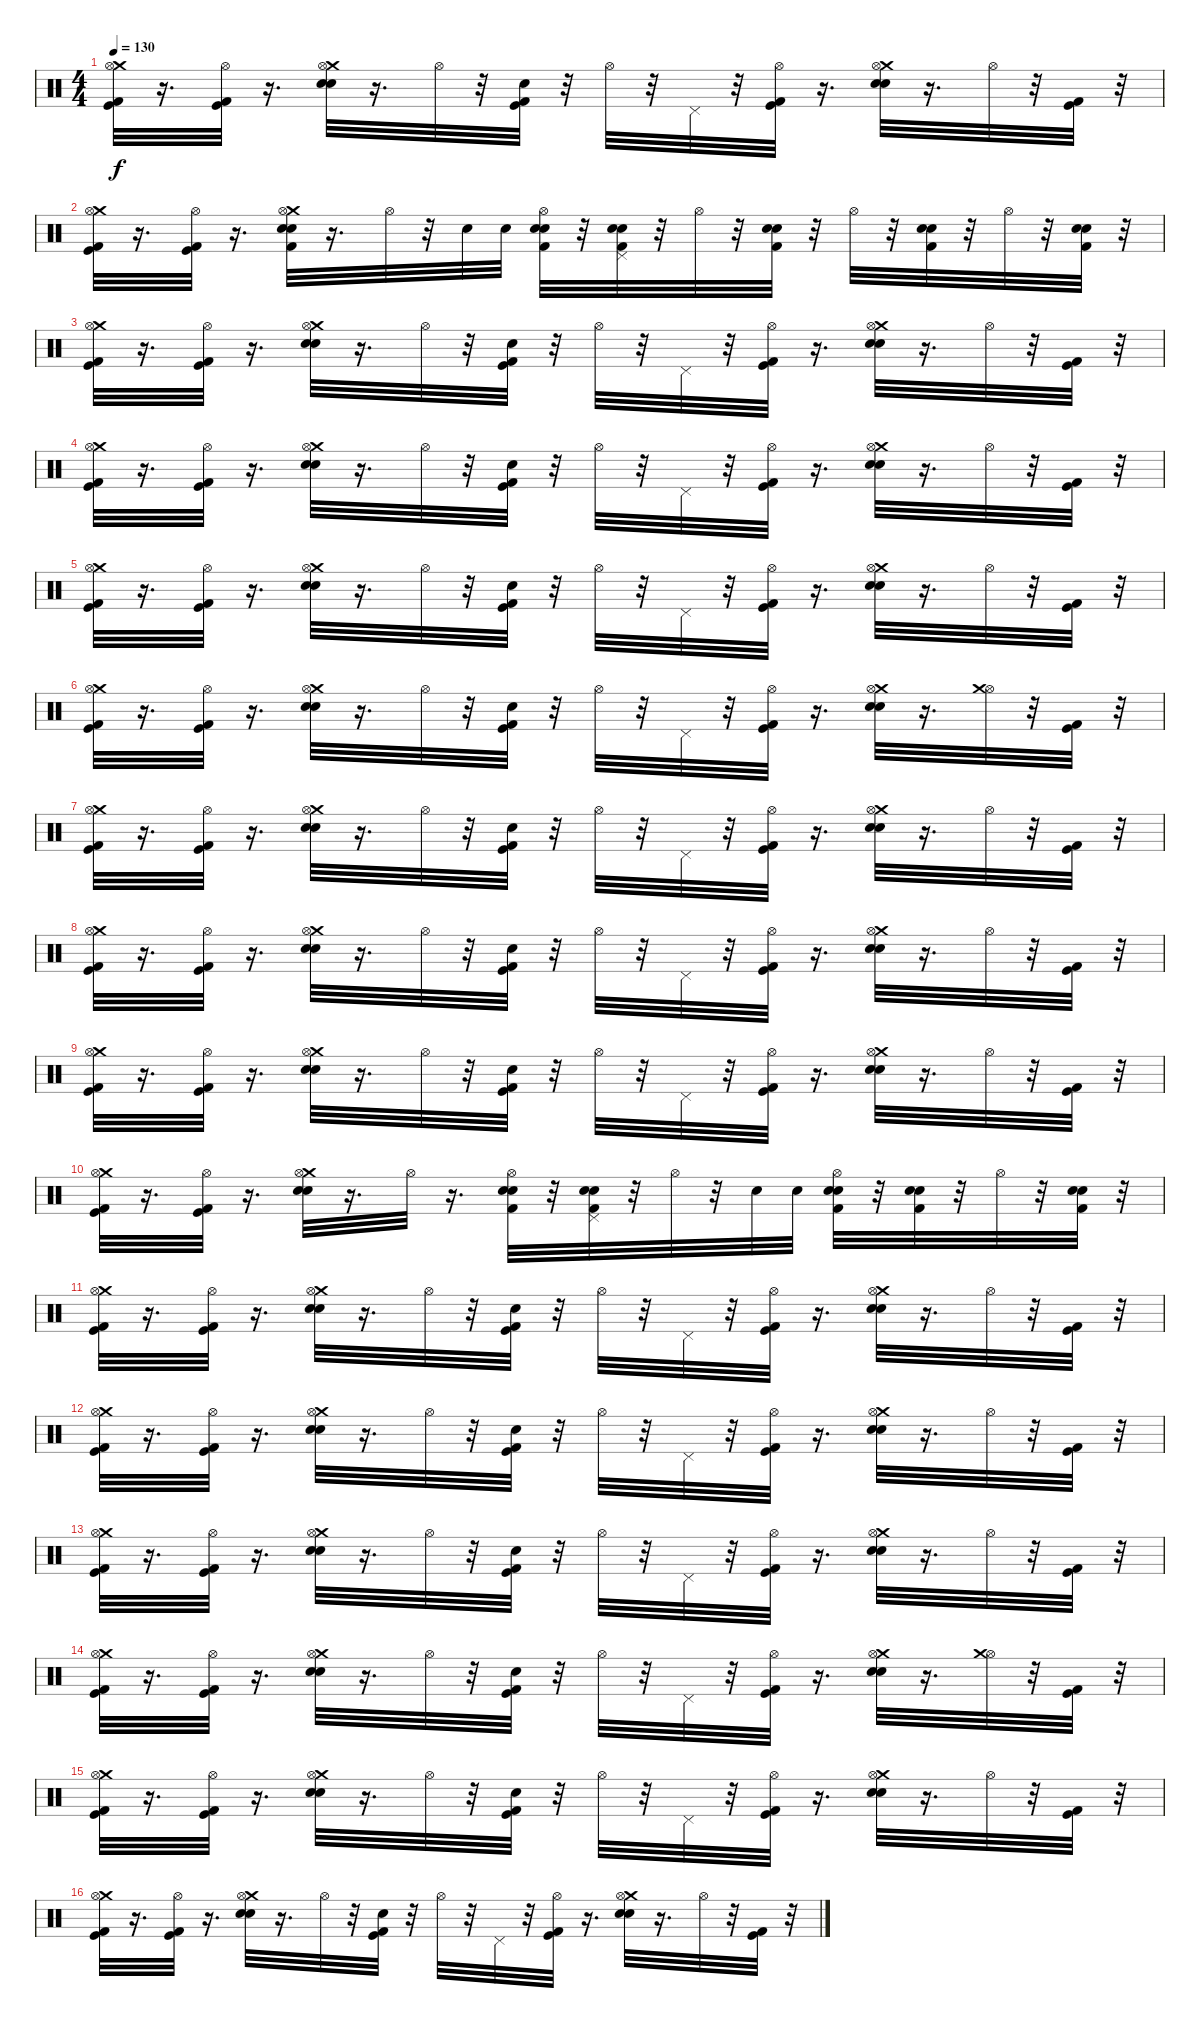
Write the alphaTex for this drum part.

\track "" {instrument percussion}
\staff {score}
\articulation defaults
\ts (4 4)
\tempo 130
\clef neutral
\ks c
("Kick (hit) 2" "Kick (hit)" "Crash medium (hit)" "Hi-Hat (open)").32{dy f} r.16{d} ("Kick (hit) 2" "Kick (hit)" "Hi-Hat (open)").32 r.16{d} ("Snare (hit) 2" "Electric Snare (hit)" "Crash medium (hit)" "Hi-Hat (open)").32 r.16{d} "Hi-Hat (open)".32 r.32 ("Kick (hit) 2" "Kick (hit)" "Electric Snare (hit)").32 r.32 "Hi-Hat (open)".32 r.32 "Pedal Hi-Hat (hit)".32 r.32 ("Kick (hit) 2" "Kick (hit)" "Hi-Hat (open)").32 r.16{d} ("Snare (hit) 2" "Electric Snare (hit)" "Crash medium (hit)" "Hi-Hat (open)").32 r.16{d} "Hi-Hat (open)".32 r.32 ("Kick (hit) 2" "Kick (hit)").32 r.32 |
("Kick (hit) 2" "Kick (hit)" "Crash medium (hit)" "Hi-Hat (open)").32 r.16{d} ("Kick (hit) 2" "Kick (hit)" "Hi-Hat (open)").32 r.16{d} ("Crash medium (hit)" "Hi-Hat (open)" "Electric Snare (hit)" "Snare (hit) 2" "Kick (hit) 2").32 r.16{d} "Hi-Hat (open)".32 r.32 "Electric Snare (hit)".32 "Electric Snare (hit)".32 ("Hi-Hat (open)" "Snare (hit) 2" "Electric Snare (hit)" "Kick (hit) 2").32 r.32 ("Pedal Hi-Hat (hit)" "Electric Snare (hit)" "Snare (hit) 2" "Kick (hit) 2").32 r.32 "Hi-Hat (open)".32 r.32 ("Electric Snare (hit)" "Snare (hit) 2" "Kick (hit) 2").32 r.32 "Hi-Hat (open)".32 r.32 ("Electric Snare (hit)" "Snare (hit) 2" "Kick (hit) 2").32 r.32 "Hi-Hat (open)".32 r.32 ("Electric Snare (hit)" "Snare (hit) 2" "Kick (hit) 2").32 r.32 |
("Kick (hit) 2" "Kick (hit)" "Crash medium (hit)" "Hi-Hat (open)").32 r.16{d} ("Kick (hit) 2" "Kick (hit)" "Hi-Hat (open)").32 r.16{d} ("Snare (hit) 2" "Electric Snare (hit)" "Crash medium (hit)" "Hi-Hat (open)").32 r.16{d} "Hi-Hat (open)".32 r.32 ("Kick (hit) 2" "Kick (hit)" "Electric Snare (hit)").32 r.32 "Hi-Hat (open)".32 r.32 "Pedal Hi-Hat (hit)".32 r.32 ("Kick (hit) 2" "Kick (hit)" "Hi-Hat (open)").32 r.16{d} ("Snare (hit) 2" "Electric Snare (hit)" "Crash medium (hit)" "Hi-Hat (open)").32 r.16{d} "Hi-Hat (open)".32 r.32 ("Kick (hit) 2" "Kick (hit)").32 r.32 |
("Kick (hit) 2" "Kick (hit)" "Crash medium (hit)" "Hi-Hat (open)").32 r.16{d} ("Kick (hit) 2" "Kick (hit)" "Hi-Hat (open)").32 r.16{d} ("Snare (hit) 2" "Electric Snare (hit)" "Crash medium (hit)" "Hi-Hat (open)").32 r.16{d} "Hi-Hat (open)".32 r.32 ("Kick (hit) 2" "Kick (hit)" "Electric Snare (hit)").32 r.32 "Hi-Hat (open)".32 r.32 "Pedal Hi-Hat (hit)".32 r.32 ("Kick (hit) 2" "Kick (hit)" "Hi-Hat (open)").32 r.16{d} ("Snare (hit) 2" "Electric Snare (hit)" "Crash medium (hit)" "Hi-Hat (open)").32 r.16{d} "Hi-Hat (open)".32 r.32 ("Kick (hit) 2" "Kick (hit)").32 r.32 |
("Kick (hit) 2" "Kick (hit)" "Crash medium (hit)" "Hi-Hat (open)").32 r.16{d} ("Kick (hit) 2" "Kick (hit)" "Hi-Hat (open)").32 r.16{d} ("Snare (hit) 2" "Electric Snare (hit)" "Crash medium (hit)" "Hi-Hat (open)").32 r.16{d} "Hi-Hat (open)".32 r.32 ("Kick (hit) 2" "Kick (hit)" "Electric Snare (hit)").32 r.32 "Hi-Hat (open)".32 r.32 "Pedal Hi-Hat (hit)".32 r.32 ("Kick (hit) 2" "Kick (hit)" "Hi-Hat (open)").32 r.16{d} ("Snare (hit) 2" "Electric Snare (hit)" "Crash medium (hit)" "Hi-Hat (open)").32 r.16{d} "Hi-Hat (open)".32 r.32 ("Kick (hit) 2" "Kick (hit)").32 r.32 |
("Kick (hit) 2" "Kick (hit)" "Crash medium (hit)" "Hi-Hat (open)").32 r.16{d} ("Kick (hit) 2" "Kick (hit)" "Hi-Hat (open)").32 r.16{d} ("Snare (hit) 2" "Electric Snare (hit)" "Crash medium (hit)" "Hi-Hat (open)").32 r.16{d} "Hi-Hat (open)".32 r.32 ("Kick (hit) 2" "Kick (hit)" "Electric Snare (hit)").32 r.32 "Hi-Hat (open)".32 r.32 "Pedal Hi-Hat (hit)".32 r.32 ("Kick (hit) 2" "Kick (hit)" "Hi-Hat (open)").32 r.16{d} ("Snare (hit) 2" "Electric Snare (hit)" "Crash medium (hit)" "Hi-Hat (open)").32 r.16{d} ("Hi-Hat (open)" "Crash medium (hit)").32 r.32 ("Kick (hit) 2" "Kick (hit)").32 r.32 |
("Kick (hit) 2" "Kick (hit)" "Crash medium (hit)" "Hi-Hat (open)").32 r.16{d} ("Kick (hit) 2" "Kick (hit)" "Hi-Hat (open)").32 r.16{d} ("Snare (hit) 2" "Electric Snare (hit)" "Crash medium (hit)" "Hi-Hat (open)").32 r.16{d} "Hi-Hat (open)".32 r.32 ("Kick (hit) 2" "Kick (hit)" "Electric Snare (hit)").32 r.32 "Hi-Hat (open)".32 r.32 "Pedal Hi-Hat (hit)".32 r.32 ("Kick (hit) 2" "Kick (hit)" "Hi-Hat (open)").32 r.16{d} ("Snare (hit) 2" "Electric Snare (hit)" "Crash medium (hit)" "Hi-Hat (open)").32 r.16{d} "Hi-Hat (open)".32 r.32 ("Kick (hit) 2" "Kick (hit)").32 r.32 |
("Kick (hit) 2" "Kick (hit)" "Crash medium (hit)" "Hi-Hat (open)").32 r.16{d} ("Kick (hit) 2" "Kick (hit)" "Hi-Hat (open)").32 r.16{d} ("Snare (hit) 2" "Electric Snare (hit)" "Crash medium (hit)" "Hi-Hat (open)").32 r.16{d} "Hi-Hat (open)".32 r.32 ("Kick (hit) 2" "Kick (hit)" "Electric Snare (hit)").32 r.32 "Hi-Hat (open)".32 r.32 "Pedal Hi-Hat (hit)".32 r.32 ("Kick (hit) 2" "Kick (hit)" "Hi-Hat (open)").32 r.16{d} ("Snare (hit) 2" "Electric Snare (hit)" "Crash medium (hit)" "Hi-Hat (open)").32 r.16{d} "Hi-Hat (open)".32 r.32 ("Kick (hit) 2" "Kick (hit)").32 r.32 |
("Kick (hit) 2" "Kick (hit)" "Crash medium (hit)" "Hi-Hat (open)").32 r.16{d} ("Kick (hit) 2" "Kick (hit)" "Hi-Hat (open)").32 r.16{d} ("Snare (hit) 2" "Electric Snare (hit)" "Crash medium (hit)" "Hi-Hat (open)").32 r.16{d} "Hi-Hat (open)".32 r.32 ("Kick (hit) 2" "Kick (hit)" "Electric Snare (hit)").32 r.32 "Hi-Hat (open)".32 r.32 "Pedal Hi-Hat (hit)".32 r.32 ("Kick (hit) 2" "Kick (hit)" "Hi-Hat (open)").32 r.16{d} ("Snare (hit) 2" "Electric Snare (hit)" "Crash medium (hit)" "Hi-Hat (open)").32 r.16{d} "Hi-Hat (open)".32 r.32 ("Kick (hit) 2" "Kick (hit)").32 r.32 |
("Kick (hit) 2" "Kick (hit)" "Crash medium (hit)" "Hi-Hat (open)").32 r.16{d} ("Kick (hit) 2" "Kick (hit)" "Hi-Hat (open)").32 r.16{d} ("Snare (hit) 2" "Electric Snare (hit)" "Crash medium (hit)" "Hi-Hat (open)").32 r.16{d} "Hi-Hat (open)".32 r.16{d} ("Hi-Hat (open)" "Electric Snare (hit)" "Snare (hit) 2" "Kick (hit) 2").32 r.32 ("Electric Snare (hit)" "Snare (hit) 2" "Kick (hit) 2" "Pedal Hi-Hat (hit)").32 r.32 "Hi-Hat (open)".32 r.32 "Electric Snare (hit)".32 "Electric Snare (hit)".32 ("Hi-Hat (open)" "Snare (hit) 2" "Electric Snare (hit)" "Kick (hit) 2").32 r.32 ("Electric Snare (hit)" "Snare (hit) 2" "Kick (hit) 2").32 r.32 "Hi-Hat (open)".32 r.32 ("Electric Snare (hit)" "Snare (hit) 2" "Kick (hit) 2").32 r.32 |
("Kick (hit) 2" "Kick (hit)" "Crash medium (hit)" "Hi-Hat (open)").32 r.16{d} ("Kick (hit) 2" "Kick (hit)" "Hi-Hat (open)").32 r.16{d} ("Snare (hit) 2" "Electric Snare (hit)" "Crash medium (hit)" "Hi-Hat (open)").32 r.16{d} "Hi-Hat (open)".32 r.32 ("Kick (hit) 2" "Kick (hit)" "Electric Snare (hit)").32 r.32 "Hi-Hat (open)".32 r.32 "Pedal Hi-Hat (hit)".32 r.32 ("Kick (hit) 2" "Kick (hit)" "Hi-Hat (open)").32 r.16{d} ("Snare (hit) 2" "Electric Snare (hit)" "Crash medium (hit)" "Hi-Hat (open)").32 r.16{d} "Hi-Hat (open)".32 r.32 ("Kick (hit) 2" "Kick (hit)").32 r.32 |
("Kick (hit) 2" "Kick (hit)" "Crash medium (hit)" "Hi-Hat (open)").32 r.16{d} ("Kick (hit) 2" "Kick (hit)" "Hi-Hat (open)").32 r.16{d} ("Snare (hit) 2" "Electric Snare (hit)" "Crash medium (hit)" "Hi-Hat (open)").32 r.16{d} "Hi-Hat (open)".32 r.32 ("Kick (hit) 2" "Kick (hit)" "Electric Snare (hit)").32 r.32 "Hi-Hat (open)".32 r.32 "Pedal Hi-Hat (hit)".32 r.32 ("Kick (hit) 2" "Kick (hit)" "Hi-Hat (open)").32 r.16{d} ("Snare (hit) 2" "Electric Snare (hit)" "Crash medium (hit)" "Hi-Hat (open)").32 r.16{d} "Hi-Hat (open)".32 r.32 ("Kick (hit) 2" "Kick (hit)").32 r.32 |
("Kick (hit) 2" "Kick (hit)" "Crash medium (hit)" "Hi-Hat (open)").32 r.16{d} ("Kick (hit) 2" "Kick (hit)" "Hi-Hat (open)").32 r.16{d} ("Snare (hit) 2" "Electric Snare (hit)" "Crash medium (hit)" "Hi-Hat (open)").32 r.16{d} "Hi-Hat (open)".32 r.32 ("Kick (hit) 2" "Kick (hit)" "Electric Snare (hit)").32 r.32 "Hi-Hat (open)".32 r.32 "Pedal Hi-Hat (hit)".32 r.32 ("Kick (hit) 2" "Kick (hit)" "Hi-Hat (open)").32 r.16{d} ("Snare (hit) 2" "Electric Snare (hit)" "Crash medium (hit)" "Hi-Hat (open)").32 r.16{d} "Hi-Hat (open)".32 r.32 ("Kick (hit) 2" "Kick (hit)").32 r.32 |
("Kick (hit) 2" "Kick (hit)" "Crash medium (hit)" "Hi-Hat (open)").32 r.16{d} ("Kick (hit) 2" "Kick (hit)" "Hi-Hat (open)").32 r.16{d} ("Snare (hit) 2" "Electric Snare (hit)" "Crash medium (hit)" "Hi-Hat (open)").32 r.16{d} "Hi-Hat (open)".32 r.32 ("Kick (hit) 2" "Kick (hit)" "Electric Snare (hit)").32 r.32 "Hi-Hat (open)".32 r.32 "Pedal Hi-Hat (hit)".32 r.32 ("Kick (hit) 2" "Kick (hit)" "Hi-Hat (open)").32 r.16{d} ("Snare (hit) 2" "Electric Snare (hit)" "Crash medium (hit)" "Hi-Hat (open)").32 r.16{d} ("Hi-Hat (open)" "Crash medium (hit)").32 r.32 ("Kick (hit) 2" "Kick (hit)").32 r.32 |
("Kick (hit) 2" "Kick (hit)" "Crash medium (hit)" "Hi-Hat (open)").32 r.16{d} ("Kick (hit) 2" "Kick (hit)" "Hi-Hat (open)").32 r.16{d} ("Snare (hit) 2" "Electric Snare (hit)" "Crash medium (hit)" "Hi-Hat (open)").32 r.16{d} "Hi-Hat (open)".32 r.32 ("Kick (hit) 2" "Kick (hit)" "Electric Snare (hit)").32 r.32 "Hi-Hat (open)".32 r.32 "Pedal Hi-Hat (hit)".32 r.32 ("Kick (hit) 2" "Kick (hit)" "Hi-Hat (open)").32 r.16{d} ("Snare (hit) 2" "Electric Snare (hit)" "Crash medium (hit)" "Hi-Hat (open)").32 r.16{d} "Hi-Hat (open)".32 r.32 ("Kick (hit) 2" "Kick (hit)").32 r.32 |
("Kick (hit) 2" "Kick (hit)" "Crash medium (hit)" "Hi-Hat (open)").32 r.16{d} ("Kick (hit) 2" "Kick (hit)" "Hi-Hat (open)").32 r.16{d} ("Snare (hit) 2" "Electric Snare (hit)" "Crash medium (hit)" "Hi-Hat (open)").32 r.16{d} "Hi-Hat (open)".32 r.32 ("Kick (hit) 2" "Kick (hit)" "Electric Snare (hit)").32 r.32 "Hi-Hat (open)".32 r.32 "Pedal Hi-Hat (hit)".32 r.32 ("Kick (hit) 2" "Kick (hit)" "Hi-Hat (open)").32 r.16{d} ("Snare (hit) 2" "Electric Snare (hit)" "Crash medium (hit)" "Hi-Hat (open)").32 r.16{d} "Hi-Hat (open)".32 r.32 ("Kick (hit) 2" "Kick (hit)").32 r.32
